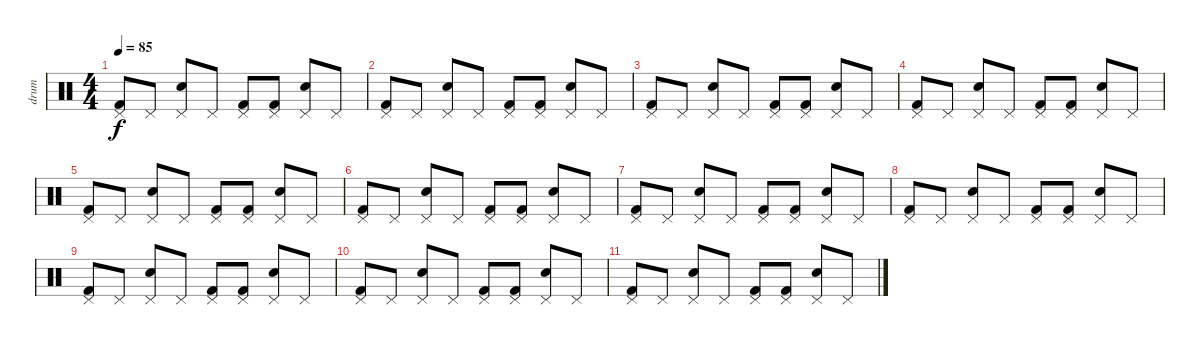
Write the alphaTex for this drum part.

\track ("drum" "drum") {instrument percussion}
\staff {score}
\articulation defaults
\ts (4 4)
\tempo 85
\clef neutral
\ks c
("Pedal Hi-Hat (hit)" "Kick (hit) 2").8{dy f} "Pedal Hi-Hat (hit)".8 ("Pedal Hi-Hat (hit)" "Snare (hit) 2").8 "Pedal Hi-Hat (hit)".8 ("Pedal Hi-Hat (hit)" "Kick (hit) 2").8 ("Pedal Hi-Hat (hit)" "Kick (hit) 2").8 ("Pedal Hi-Hat (hit)" "Snare (hit) 2").8 "Pedal Hi-Hat (hit)".8 |
("Pedal Hi-Hat (hit)" "Kick (hit) 2").8 "Pedal Hi-Hat (hit)".8 ("Pedal Hi-Hat (hit)" "Snare (hit) 2").8 "Pedal Hi-Hat (hit)".8 ("Pedal Hi-Hat (hit)" "Kick (hit) 2").8 ("Pedal Hi-Hat (hit)" "Kick (hit) 2").8 ("Pedal Hi-Hat (hit)" "Snare (hit) 2").8 "Pedal Hi-Hat (hit)".8 |
("Pedal Hi-Hat (hit)" "Kick (hit) 2").8 "Pedal Hi-Hat (hit)".8 ("Pedal Hi-Hat (hit)" "Snare (hit) 2").8 "Pedal Hi-Hat (hit)".8 ("Pedal Hi-Hat (hit)" "Kick (hit) 2").8 ("Pedal Hi-Hat (hit)" "Kick (hit) 2").8 ("Pedal Hi-Hat (hit)" "Snare (hit) 2").8 "Pedal Hi-Hat (hit)".8 |
("Pedal Hi-Hat (hit)" "Kick (hit) 2").8 "Pedal Hi-Hat (hit)".8 ("Pedal Hi-Hat (hit)" "Snare (hit) 2").8 "Pedal Hi-Hat (hit)".8 ("Pedal Hi-Hat (hit)" "Kick (hit) 2").8 ("Pedal Hi-Hat (hit)" "Kick (hit) 2").8 ("Pedal Hi-Hat (hit)" "Snare (hit) 2").8 "Pedal Hi-Hat (hit)".8 |
("Pedal Hi-Hat (hit)" "Kick (hit) 2").8 "Pedal Hi-Hat (hit)".8 ("Pedal Hi-Hat (hit)" "Snare (hit) 2").8 "Pedal Hi-Hat (hit)".8 ("Pedal Hi-Hat (hit)" "Kick (hit) 2").8 ("Pedal Hi-Hat (hit)" "Kick (hit) 2").8 ("Pedal Hi-Hat (hit)" "Snare (hit) 2").8 "Pedal Hi-Hat (hit)".8 |
("Pedal Hi-Hat (hit)" "Kick (hit) 2").8 "Pedal Hi-Hat (hit)".8 ("Pedal Hi-Hat (hit)" "Snare (hit) 2").8 "Pedal Hi-Hat (hit)".8 ("Pedal Hi-Hat (hit)" "Kick (hit) 2").8 ("Pedal Hi-Hat (hit)" "Kick (hit) 2").8 ("Pedal Hi-Hat (hit)" "Snare (hit) 2").8 "Pedal Hi-Hat (hit)".8 |
("Pedal Hi-Hat (hit)" "Kick (hit) 2").8 "Pedal Hi-Hat (hit)".8 ("Pedal Hi-Hat (hit)" "Snare (hit) 2").8 "Pedal Hi-Hat (hit)".8 ("Pedal Hi-Hat (hit)" "Kick (hit) 2").8 ("Pedal Hi-Hat (hit)" "Kick (hit) 2").8 ("Pedal Hi-Hat (hit)" "Snare (hit) 2").8 "Pedal Hi-Hat (hit)".8 |
("Pedal Hi-Hat (hit)" "Kick (hit) 2").8 "Pedal Hi-Hat (hit)".8 ("Pedal Hi-Hat (hit)" "Snare (hit) 2").8 "Pedal Hi-Hat (hit)".8 ("Pedal Hi-Hat (hit)" "Kick (hit) 2").8 ("Pedal Hi-Hat (hit)" "Kick (hit) 2").8 ("Pedal Hi-Hat (hit)" "Snare (hit) 2").8 "Pedal Hi-Hat (hit)".8 |
("Pedal Hi-Hat (hit)" "Kick (hit) 2").8 "Pedal Hi-Hat (hit)".8 ("Pedal Hi-Hat (hit)" "Snare (hit) 2").8 "Pedal Hi-Hat (hit)".8 ("Pedal Hi-Hat (hit)" "Kick (hit) 2").8 ("Pedal Hi-Hat (hit)" "Kick (hit) 2").8 ("Pedal Hi-Hat (hit)" "Snare (hit) 2").8 "Pedal Hi-Hat (hit)".8 |
("Pedal Hi-Hat (hit)" "Kick (hit) 2").8 "Pedal Hi-Hat (hit)".8 ("Pedal Hi-Hat (hit)" "Snare (hit) 2").8 "Pedal Hi-Hat (hit)".8 ("Pedal Hi-Hat (hit)" "Kick (hit) 2").8 ("Pedal Hi-Hat (hit)" "Kick (hit) 2").8 ("Pedal Hi-Hat (hit)" "Snare (hit) 2").8 "Pedal Hi-Hat (hit)".8 |
("Pedal Hi-Hat (hit)" "Kick (hit) 2").8 "Pedal Hi-Hat (hit)".8 ("Pedal Hi-Hat (hit)" "Snare (hit) 2").8 "Pedal Hi-Hat (hit)".8 ("Pedal Hi-Hat (hit)" "Kick (hit) 2").8 ("Pedal Hi-Hat (hit)" "Kick (hit) 2").8 ("Pedal Hi-Hat (hit)" "Snare (hit) 2").8 "Pedal Hi-Hat (hit)".8
